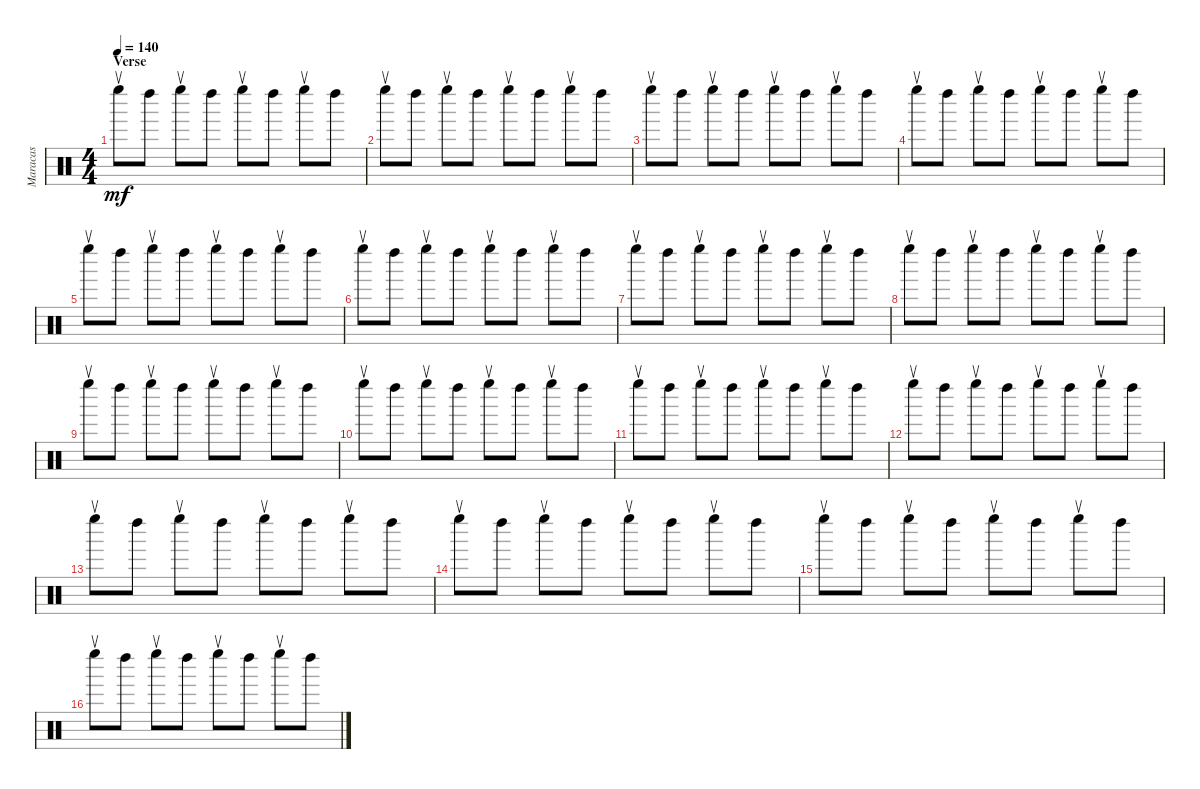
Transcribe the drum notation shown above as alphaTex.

\track ("Maracas" "Maracas") {instrument percussion}
\staff {score}
\articulation defaults
\ts (4 4)
\section ("" "Verse")
\tempo 140
\clef neutral
\ks c "Left Maraca (return)".8{dy mf} "Left Maraca (hit)".8 "Left Maraca (return)".8 "Left Maraca (hit)".8 "Left Maraca (return)".8 "Left Maraca (hit)".8 "Left Maraca (return)".8 "Left Maraca (hit)".8
|
"Left Maraca (return)".8 "Left Maraca (hit)".8 "Left Maraca (return)".8 "Left Maraca (hit)".8 "Left Maraca (return)".8 "Left Maraca (hit)".8 "Left Maraca (return)".8 "Left Maraca (hit)".8 |
"Left Maraca (return)".8 "Left Maraca (hit)".8 "Left Maraca (return)".8 "Left Maraca (hit)".8 "Left Maraca (return)".8 "Left Maraca (hit)".8 "Left Maraca (return)".8 "Left Maraca (hit)".8 |
"Left Maraca (return)".8 "Left Maraca (hit)".8 "Left Maraca (return)".8 "Left Maraca (hit)".8 "Left Maraca (return)".8 "Left Maraca (hit)".8 "Left Maraca (return)".8 "Left Maraca (hit)".8 |
"Left Maraca (return)".8 "Left Maraca (hit)".8 "Left Maraca (return)".8 "Left Maraca (hit)".8 "Left Maraca (return)".8 "Left Maraca (hit)".8 "Left Maraca (return)".8 "Left Maraca (hit)".8 |
"Left Maraca (return)".8 "Left Maraca (hit)".8 "Left Maraca (return)".8 "Left Maraca (hit)".8 "Left Maraca (return)".8 "Left Maraca (hit)".8 "Left Maraca (return)".8 "Left Maraca (hit)".8 |
"Left Maraca (return)".8 "Left Maraca (hit)".8 "Left Maraca (return)".8 "Left Maraca (hit)".8 "Left Maraca (return)".8 "Left Maraca (hit)".8 "Left Maraca (return)".8 "Left Maraca (hit)".8 |
"Left Maraca (return)".8 "Left Maraca (hit)".8 "Left Maraca (return)".8 "Left Maraca (hit)".8 "Left Maraca (return)".8 "Left Maraca (hit)".8 "Left Maraca (return)".8 "Left Maraca (hit)".8 |
"Left Maraca (return)".8 "Left Maraca (hit)".8 "Left Maraca (return)".8 "Left Maraca (hit)".8 "Left Maraca (return)".8 "Left Maraca (hit)".8 "Left Maraca (return)".8 "Left Maraca (hit)".8 |
"Left Maraca (return)".8 "Left Maraca (hit)".8 "Left Maraca (return)".8 "Left Maraca (hit)".8 "Left Maraca (return)".8 "Left Maraca (hit)".8 "Left Maraca (return)".8 "Left Maraca (hit)".8 |
"Left Maraca (return)".8 "Left Maraca (hit)".8 "Left Maraca (return)".8 "Left Maraca (hit)".8 "Left Maraca (return)".8 "Left Maraca (hit)".8 "Left Maraca (return)".8 "Left Maraca (hit)".8 |
"Left Maraca (return)".8 "Left Maraca (hit)".8 "Left Maraca (return)".8 "Left Maraca (hit)".8 "Left Maraca (return)".8 "Left Maraca (hit)".8 "Left Maraca (return)".8 "Left Maraca (hit)".8 |
"Left Maraca (return)".8 "Left Maraca (hit)".8 "Left Maraca (return)".8 "Left Maraca (hit)".8 "Left Maraca (return)".8 "Left Maraca (hit)".8 "Left Maraca (return)".8 "Left Maraca (hit)".8 |
"Left Maraca (return)".8 "Left Maraca (hit)".8 "Left Maraca (return)".8 "Left Maraca (hit)".8 "Left Maraca (return)".8 "Left Maraca (hit)".8 "Left Maraca (return)".8 "Left Maraca (hit)".8 |
"Left Maraca (return)".8 "Left Maraca (hit)".8 "Left Maraca (return)".8 "Left Maraca (hit)".8 "Left Maraca (return)".8 "Left Maraca (hit)".8 "Left Maraca (return)".8 "Left Maraca (hit)".8 |
"Left Maraca (return)".8 "Left Maraca (hit)".8 "Left Maraca (return)".8 "Left Maraca (hit)".8 "Left Maraca (return)".8 "Left Maraca (hit)".8 "Left Maraca (return)".8 "Left Maraca (hit)".8
